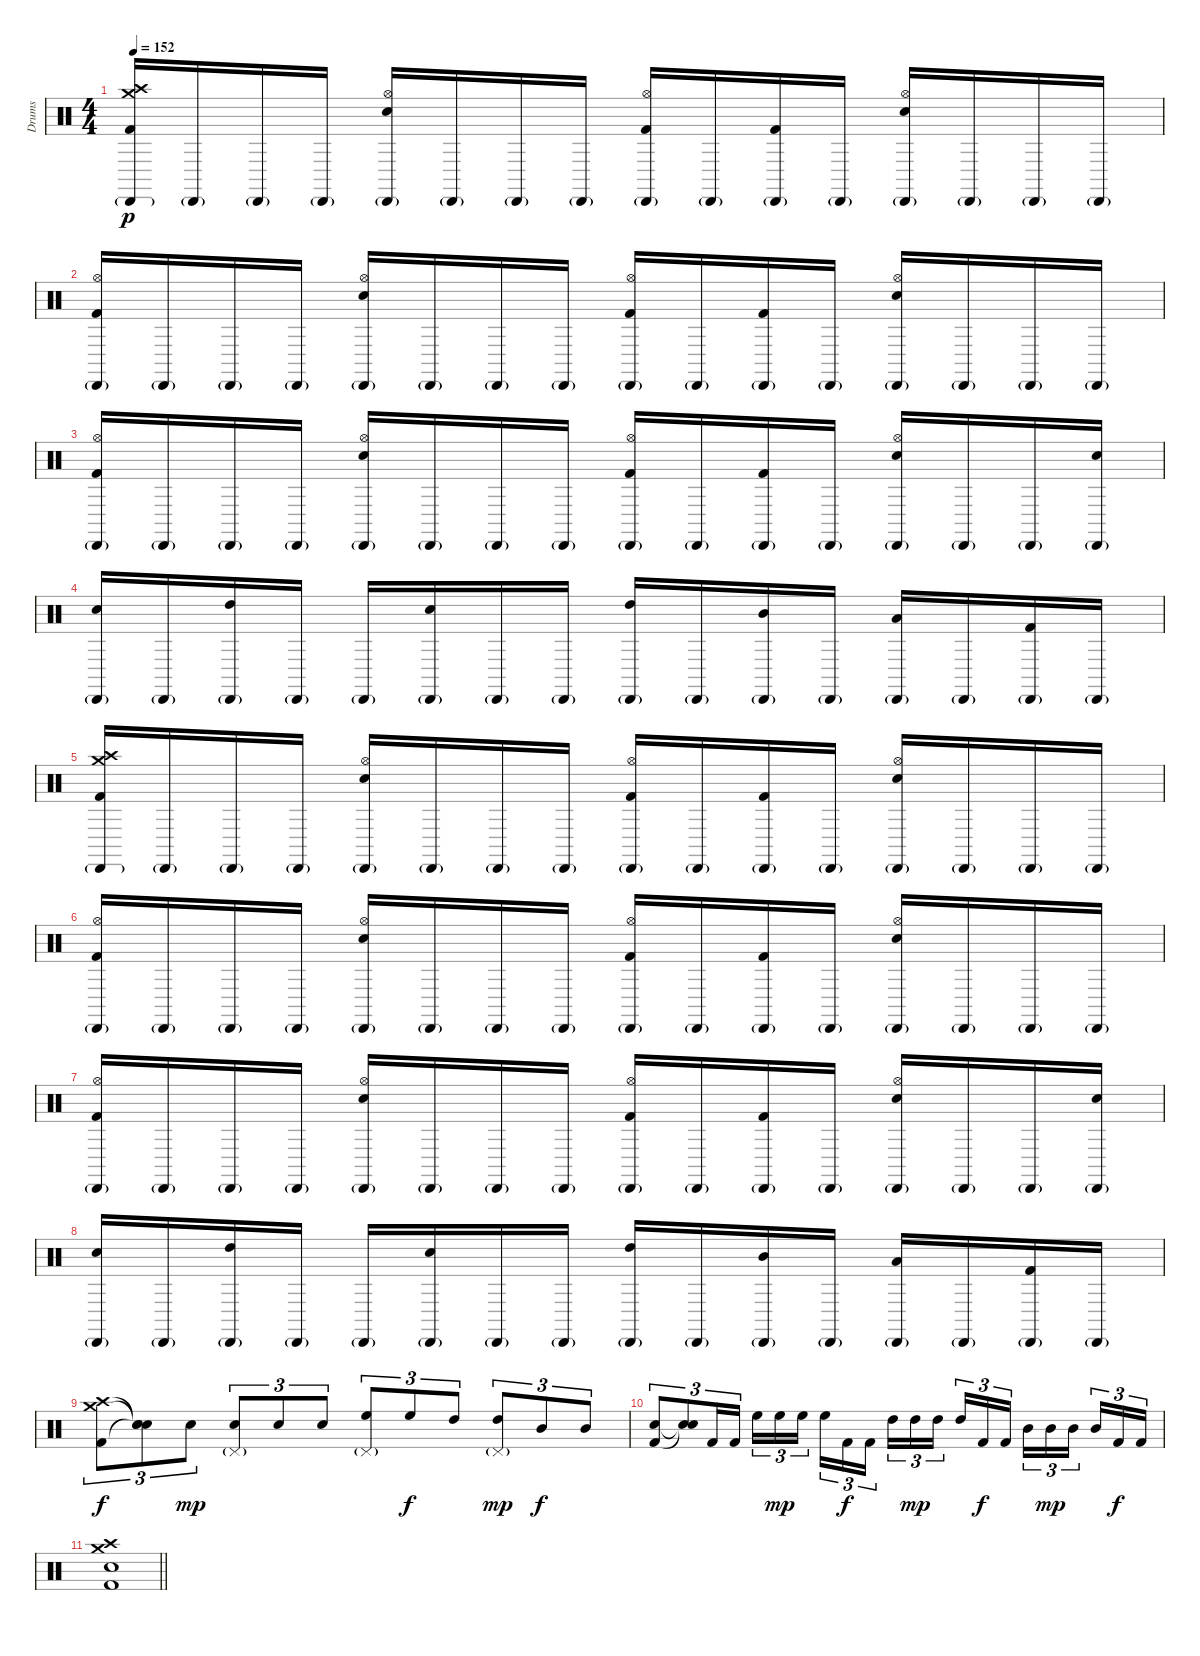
\track ("Drums" "Drums") {instrument percussion}
\staff {score}
\articulation defaults
\ts (4 4)
\tempo 152
\clef neutral
\ks c
("Crash high (hit)" "Crash medium (hit)" "Cabasa (hit)"{g} "Kick (hit) 2").16{dy p} "Cabasa (hit)"{g}.16 "Cabasa (hit)"{g}.16 "Cabasa (hit)"{g}.16 ("Hi-Hat (open)" "Cabasa (hit)"{g} "Electric Snare (hit)").16 "Cabasa (hit)"{g}.16 "Cabasa (hit)"{g}.16 "Cabasa (hit)"{g}.16 ("Hi-Hat (open)" "Cabasa (hit)"{g} "Kick (hit) 2").16 "Cabasa (hit)"{g}.16 ("Cabasa (hit)"{g} "Kick (hit) 2").16 "Cabasa (hit)"{g}.16 ("Hi-Hat (open)" "Cabasa (hit)"{g} "Electric Snare (hit)").16 "Cabasa (hit)"{g}.16 "Cabasa (hit)"{g}.16 "Cabasa (hit)"{g}.16 |
("Hi-Hat (open)" "Cabasa (hit)"{g} "Kick (hit) 2").16 "Cabasa (hit)"{g}.16 "Cabasa (hit)"{g}.16 "Cabasa (hit)"{g}.16 ("Hi-Hat (open)" "Cabasa (hit)"{g} "Electric Snare (hit)").16 "Cabasa (hit)"{g}.16 "Cabasa (hit)"{g}.16 "Cabasa (hit)"{g}.16 ("Hi-Hat (open)" "Cabasa (hit)"{g} "Kick (hit) 2").16 "Cabasa (hit)"{g}.16 ("Cabasa (hit)"{g} "Kick (hit) 2").16 "Cabasa (hit)"{g}.16 ("Hi-Hat (open)" "Cabasa (hit)"{g} "Electric Snare (hit)").16 "Cabasa (hit)"{g}.16 "Cabasa (hit)"{g}.16 "Cabasa (hit)"{g}.16 |
("Hi-Hat (open)" "Cabasa (hit)"{g} "Kick (hit) 2").16 "Cabasa (hit)"{g}.16 "Cabasa (hit)"{g}.16 "Cabasa (hit)"{g}.16 ("Hi-Hat (open)" "Cabasa (hit)"{g} "Electric Snare (hit)").16 "Cabasa (hit)"{g}.16 "Cabasa (hit)"{g}.16 "Cabasa (hit)"{g}.16 ("Hi-Hat (open)" "Cabasa (hit)"{g} "Kick (hit) 2").16 "Cabasa (hit)"{g}.16 ("Cabasa (hit)"{g} "Kick (hit) 2").16 "Cabasa (hit)"{g}.16 ("Hi-Hat (open)" "Cabasa (hit)"{g} "Electric Snare (hit)").16 "Cabasa (hit)"{g}.16 "Cabasa (hit)"{g}.16 ("Cabasa (hit)"{g} "Electric Snare (hit)").16 |
("Cabasa (hit)"{g} "Electric Snare (hit)").16 "Cabasa (hit)"{g}.16 ("Cabasa (hit)"{g} "High Tom (hit)").16 "Cabasa (hit)"{g}.16 "Cabasa (hit)"{g}.16 ("Cabasa (hit)"{g} "Electric Snare (hit)").16 "Cabasa (hit)"{g}.16 "Cabasa (hit)"{g}.16 ("Cabasa (hit)"{g} "High Tom (hit)").16 "Cabasa (hit)"{g}.16 ("Cabasa (hit)"{g} "Mid Tom (hit)").16 "Cabasa (hit)"{g}.16 ("Cabasa (hit)"{g} "Low Tom (hit)").16 "Cabasa (hit)"{g}.16 ("Cabasa (hit)"{g} "Kick (hit) 2").16 "Cabasa (hit)"{g}.16 |
("Crash high (hit)" "Crash medium (hit)" "Cabasa (hit)"{g} "Kick (hit) 2").16 "Cabasa (hit)"{g}.16 "Cabasa (hit)"{g}.16 "Cabasa (hit)"{g}.16 ("Hi-Hat (open)" "Cabasa (hit)"{g} "Electric Snare (hit)").16 "Cabasa (hit)"{g}.16 "Cabasa (hit)"{g}.16 "Cabasa (hit)"{g}.16 ("Hi-Hat (open)" "Cabasa (hit)"{g} "Kick (hit) 2").16 "Cabasa (hit)"{g}.16 ("Cabasa (hit)"{g} "Kick (hit) 2").16 "Cabasa (hit)"{g}.16 ("Hi-Hat (open)" "Cabasa (hit)"{g} "Electric Snare (hit)").16 "Cabasa (hit)"{g}.16 "Cabasa (hit)"{g}.16 "Cabasa (hit)"{g}.16 |
("Hi-Hat (open)" "Cabasa (hit)"{g} "Kick (hit) 2").16 "Cabasa (hit)"{g}.16 "Cabasa (hit)"{g}.16 "Cabasa (hit)"{g}.16 ("Hi-Hat (open)" "Cabasa (hit)"{g} "Electric Snare (hit)").16 "Cabasa (hit)"{g}.16 "Cabasa (hit)"{g}.16 "Cabasa (hit)"{g}.16 ("Hi-Hat (open)" "Cabasa (hit)"{g} "Kick (hit) 2").16 "Cabasa (hit)"{g}.16 ("Cabasa (hit)"{g} "Kick (hit) 2").16 "Cabasa (hit)"{g}.16 ("Hi-Hat (open)" "Cabasa (hit)"{g} "Electric Snare (hit)").16 "Cabasa (hit)"{g}.16 "Cabasa (hit)"{g}.16 "Cabasa (hit)"{g}.16 |
("Hi-Hat (open)" "Cabasa (hit)"{g} "Kick (hit) 2").16 "Cabasa (hit)"{g}.16 "Cabasa (hit)"{g}.16 "Cabasa (hit)"{g}.16 ("Hi-Hat (open)" "Cabasa (hit)"{g} "Electric Snare (hit)").16 "Cabasa (hit)"{g}.16 "Cabasa (hit)"{g}.16 "Cabasa (hit)"{g}.16 ("Hi-Hat (open)" "Cabasa (hit)"{g} "Kick (hit) 2").16 "Cabasa (hit)"{g}.16 ("Cabasa (hit)"{g} "Kick (hit) 2").16 "Cabasa (hit)"{g}.16 ("Hi-Hat (open)" "Cabasa (hit)"{g} "Electric Snare (hit)").16 "Cabasa (hit)"{g}.16 "Cabasa (hit)"{g}.16 ("Cabasa (hit)"{g} "Electric Snare (hit)").16 |
("Cabasa (hit)"{g} "Electric Snare (hit)").16 "Cabasa (hit)"{g}.16 ("Cabasa (hit)"{g} "High Tom (hit)").16 "Cabasa (hit)"{g}.16 "Cabasa (hit)"{g}.16 ("Cabasa (hit)"{g} "Electric Snare (hit)").16 "Cabasa (hit)"{g}.16 "Cabasa (hit)"{g}.16 ("Cabasa (hit)"{g} "High Tom (hit)").16 "Cabasa (hit)"{g}.16 ("Cabasa (hit)"{g} "Mid Tom (hit)").16 "Cabasa (hit)"{g}.16 ("Cabasa (hit)"{g} "Low Tom (hit)").16 "Cabasa (hit)"{g}.16 ("Cabasa (hit)"{g} "Kick (hit) 2").16 "Cabasa (hit)"{g}.16 |
("Crash high (hit)" "Crash medium (hit)" "Kick (hit) 2").8{tu (3 2) dy f} ("Snare (hit)"{t} "Snare (hit)"{t} "Snare (hit)"{t}).8{tu (3 2)} "Electric Snare (hit)".8{tu (3 2) dy mp} ("Electric Snare (hit)" "Pedal Hi-Hat (hit)"{g}).8{tu (3 2)} "Electric Snare (hit)".8{tu (3 2)} "Electric Snare (hit)".8{tu (3 2)} ("High Floor Tom (hit)" "Pedal Hi-Hat (hit)"{g}).8{tu (3 2)} "High Floor Tom (hit)".8{tu (3 2) dy f} "High Tom (hit)".8{tu (3 2)} ("High Tom (hit)" "Pedal Hi-Hat (hit)"{g}).8{tu (3 2) dy mp} "Mid Tom (hit)".8{tu (3 2) dy f} "Mid Tom (hit)".8{tu (3 2)} |
("Electric Snare (hit)" "Kick (hit) 2").8{tu (3 2)} ("Snare (hit)"{t} "Snare (hit)"{t}).8{tu (3 2)} "Kick (hit) 2".16{tu (3 2)} "Kick (hit) 2".16{tu (3 2)} "High Floor Tom (hit)".16{tu (3 2)} "High Floor Tom (hit)".16{tu (3 2) dy mp} "High Floor Tom (hit)".16{tu (3 2)} "High Floor Tom (hit)".16{tu (3 2)} "Kick (hit) 2".16{tu (3 2) dy f} "Kick (hit) 2".16{tu (3 2)} "High Tom (hit)".16{tu (3 2)} "High Tom (hit)".16{tu (3 2) dy mp} "High Tom (hit)".16{tu (3 2)} "High Tom (hit)".16{tu (3 2)} "Kick (hit) 2".16{tu (3 2) dy f} "Kick (hit) 2".16{tu (3 2)} "Mid Tom (hit)".16{tu (3 2)} "Mid Tom (hit)".16{tu (3 2) dy mp} "Mid Tom (hit)".16{tu (3 2)} "Mid Tom (hit)".16{tu (3 2)} "Kick (hit) 2".16{tu (3 2) dy f} "Kick (hit) 2".16{tu (3 2)} |
\barLineRight lightlight
("Crash high (hit)" "Crash medium (hit)" "Electric Snare (hit)" "Kick (hit) 2").1
